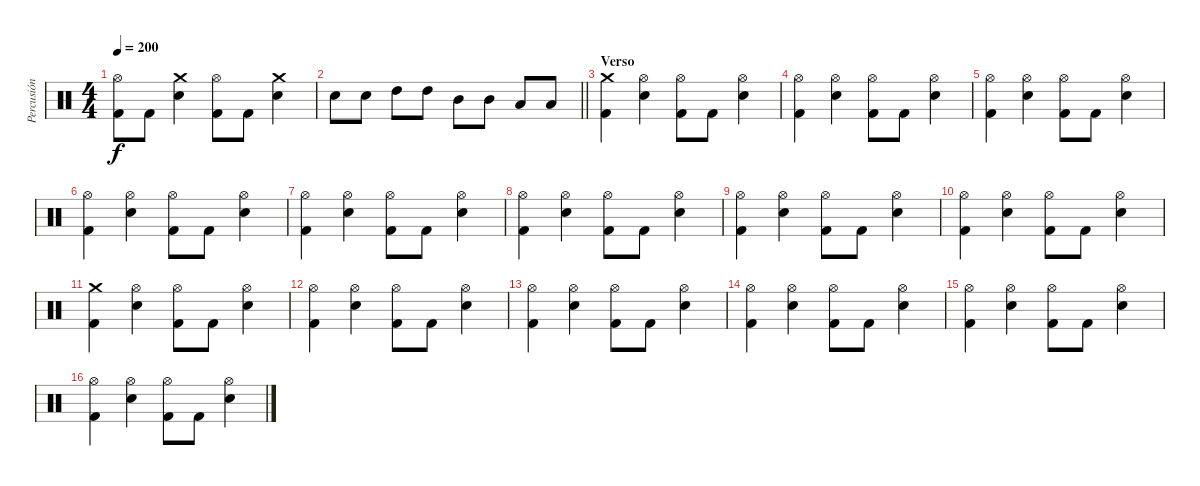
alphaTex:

\track ("Percusión" "Percusión") {instrument percussion}
\staff {score}
\articulation defaults
\ts (4 4)
\tempo 200
\clef neutral
\ks c
("Hi-Hat (open)" "Kick (hit) 2").8{dy f} "Kick (hit) 2".8 ("Snare (hit) 2" "Crash medium (hit)").4 ("Hi-Hat (open)" "Kick (hit) 2").8 "Kick (hit) 2".8 ("Snare (hit) 2" "Crash medium (hit)").4 |
\barLineRight lightlight "Snare (hit) 2".8 "Snare (hit) 2".8 "High Tom (hit)".8 "High Tom (hit)".8 "Mid Tom (hit)".8 "Mid Tom (hit)".8 "Low Tom (hit)".8 "Low Tom (hit)".8
|
\section ("" "Verso")
("Crash medium (hit)" "Kick (hit) 2").4 ("Snare (hit) 2" "Hi-Hat (open)").4 ("Hi-Hat (open)" "Kick (hit) 2").8 "Kick (hit) 2".8 ("Snare (hit) 2" "Hi-Hat (open)").4 |
("Hi-Hat (open)" "Kick (hit) 2").4 ("Snare (hit) 2" "Hi-Hat (open)").4 ("Hi-Hat (open)" "Kick (hit) 2").8 "Kick (hit) 2".8 ("Snare (hit) 2" "Hi-Hat (open)").4 |
("Hi-Hat (open)" "Kick (hit) 2").4 ("Snare (hit) 2" "Hi-Hat (open)").4 ("Hi-Hat (open)" "Kick (hit) 2").8 "Kick (hit) 2".8 ("Snare (hit) 2" "Hi-Hat (open)").4 |
("Hi-Hat (open)" "Kick (hit) 2").4 ("Snare (hit) 2" "Hi-Hat (open)").4 ("Hi-Hat (open)" "Kick (hit) 2").8 "Kick (hit) 2".8 ("Snare (hit) 2" "Hi-Hat (open)").4 |
("Hi-Hat (open)" "Kick (hit) 2").4 ("Snare (hit) 2" "Hi-Hat (open)").4 ("Hi-Hat (open)" "Kick (hit) 2").8 "Kick (hit) 2".8 ("Snare (hit) 2" "Hi-Hat (open)").4 |
("Hi-Hat (open)" "Kick (hit) 2").4 ("Snare (hit) 2" "Hi-Hat (open)").4 ("Hi-Hat (open)" "Kick (hit) 2").8 "Kick (hit) 2".8 ("Snare (hit) 2" "Hi-Hat (open)").4 |
("Hi-Hat (open)" "Kick (hit) 2").4 ("Snare (hit) 2" "Hi-Hat (open)").4 ("Hi-Hat (open)" "Kick (hit) 2").8 "Kick (hit) 2".8 ("Snare (hit) 2" "Hi-Hat (open)").4 |
("Hi-Hat (open)" "Kick (hit) 2").4 ("Snare (hit) 2" "Hi-Hat (open)").4 ("Hi-Hat (open)" "Kick (hit) 2").8 "Kick (hit) 2".8 ("Snare (hit) 2" "Hi-Hat (open)").4 |
("Crash medium (hit)" "Kick (hit) 2").4 ("Snare (hit) 2" "Hi-Hat (open)").4 ("Hi-Hat (open)" "Kick (hit) 2").8 "Kick (hit) 2".8 ("Snare (hit) 2" "Hi-Hat (open)").4 |
("Hi-Hat (open)" "Kick (hit) 2").4 ("Snare (hit) 2" "Hi-Hat (open)").4 ("Hi-Hat (open)" "Kick (hit) 2").8 "Kick (hit) 2".8 ("Snare (hit) 2" "Hi-Hat (open)").4 |
("Hi-Hat (open)" "Kick (hit) 2").4 ("Snare (hit) 2" "Hi-Hat (open)").4 ("Hi-Hat (open)" "Kick (hit) 2").8 "Kick (hit) 2".8 ("Snare (hit) 2" "Hi-Hat (open)").4 |
("Hi-Hat (open)" "Kick (hit) 2").4 ("Snare (hit) 2" "Hi-Hat (open)").4 ("Hi-Hat (open)" "Kick (hit) 2").8 "Kick (hit) 2".8 ("Snare (hit) 2" "Hi-Hat (open)").4 |
("Hi-Hat (open)" "Kick (hit) 2").4 ("Snare (hit) 2" "Hi-Hat (open)").4 ("Hi-Hat (open)" "Kick (hit) 2").8 "Kick (hit) 2".8 ("Snare (hit) 2" "Hi-Hat (open)").4 |
("Hi-Hat (open)" "Kick (hit) 2").4 ("Snare (hit) 2" "Hi-Hat (open)").4 ("Hi-Hat (open)" "Kick (hit) 2").8 "Kick (hit) 2".8 ("Snare (hit) 2" "Hi-Hat (open)").4
